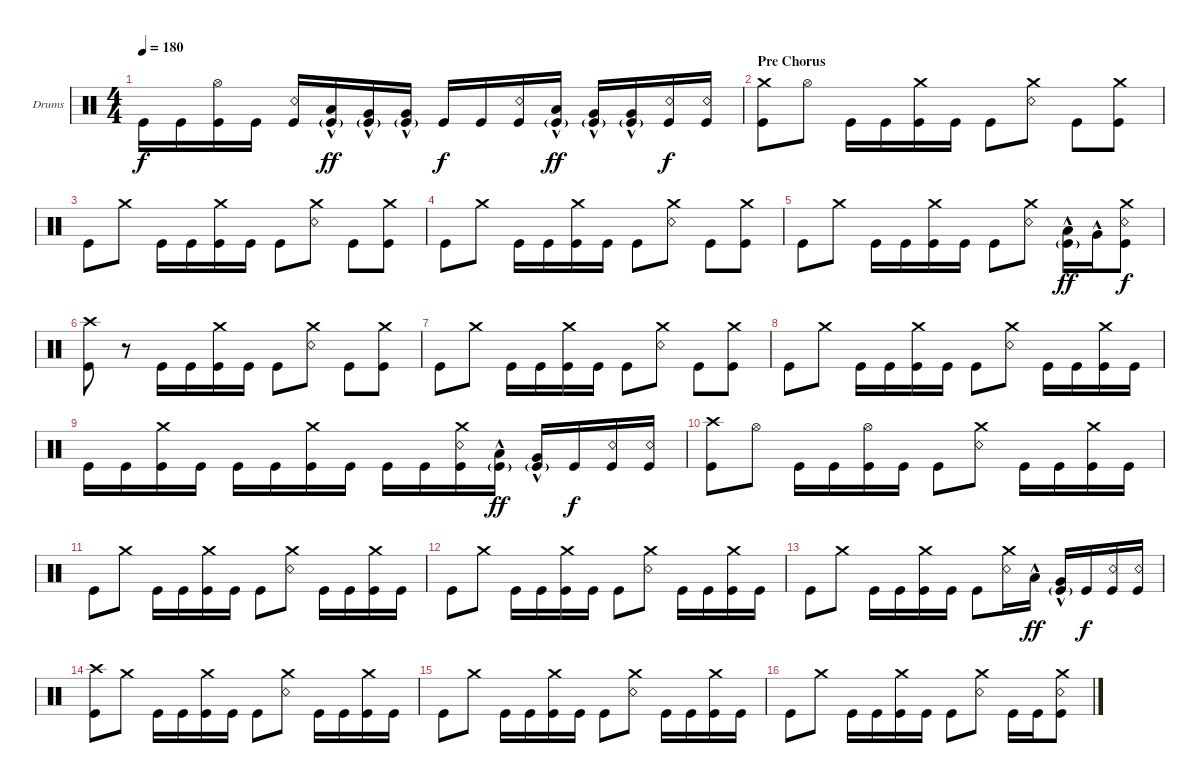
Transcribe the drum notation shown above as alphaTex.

\bracketExtendMode groupsimilarinstruments
\firstSystemTrackNameOrientation horizontal
\otherSystemsTrackNameOrientation horizontal
\track ("Drumkit" "Drums") {instrument percussion}
\staff {score}
\articulation defaults
\ts (4 4)
\tempo 180
\clef neutral
\ks c "Kick (hit)".16{dy f} "Kick (hit)".16
("Kick (hit)" "Hi-Hat (open)").16 "Kick (hit)".16 ("Kick (hit)" "Snare (rim shot)").16 ("Kick (hit)"{g} "Low Tom (hit)"{hac}).16{dy ff} ("Kick (hit)"{g} "Very Low Tom (hit)"{hac}).16 ("Kick (hit)"{g} "Very Low Tom (hit)"{hac}).16 "Kick (hit)".16{dy f} "Kick (hit)".16 ("Kick (hit)" "Snare (rim shot)").16 ("Kick (hit)"{g} "Low Tom (hit)"{hac}).16{dy ff} ("Kick (hit)"{g} "Very Low Tom (hit)"{hac}).16 ("Kick (hit)"{g} "Very Low Tom (hit)"{hac}).16 ("Kick (hit)" "Snare (rim shot)").16{dy f} ("Kick (hit)" "Snare (rim shot)").16 |
\section ("" "Pre Chorus")
("Kick (hit)" "Crash medium (hit)").8 "Hi-Hat (open)".8 "Kick (hit)".16 "Kick (hit)".16 ("Kick (hit)" "Crash medium (hit)").16 "Kick (hit)".16 "Kick (hit)".8 ("Snare (rim shot)" "Crash medium (hit)").8 "Kick (hit)".8 ("Kick (hit)" "Crash medium (hit)").8 |
"Kick (hit)".8 "Crash medium (hit)".8 "Kick (hit)".16 "Kick (hit)".16 ("Kick (hit)" "Crash medium (hit)").16 "Kick (hit)".16 "Kick (hit)".8 ("Snare (rim shot)" "Crash medium (hit)").8 "Kick (hit)".8 ("Kick (hit)" "Crash medium (hit)").8 |
"Kick (hit)".8 "Crash medium (hit)".8 "Kick (hit)".16 "Kick (hit)".16 ("Kick (hit)" "Crash medium (hit)").16 "Kick (hit)".16 "Kick (hit)".8 ("Snare (rim shot)" "Crash medium (hit)").8 "Kick (hit)".8 ("Kick (hit)" "Crash medium (hit)").8 |
"Kick (hit)".8 "Crash medium (hit)".8 "Kick (hit)".16 "Kick (hit)".16 ("Kick (hit)" "Crash medium (hit)").16 "Kick (hit)".16 "Kick (hit)".8 ("Snare (rim shot)" "Crash medium (hit)").8 ("Kick (hit)"{g} "Low Tom (hit)"{hac}).16{dy ff} "Very Low Tom (hit)"{hac}.16 ("Crash medium (hit)" "Kick (hit)" "Snare (rim shot)").8{dy f} |
("Kick (hit)" "Crash high (hit)").8 r.8 "Kick (hit)".16 "Kick (hit)".16 ("Kick (hit)" "Crash medium (hit)").16 "Kick (hit)".16 "Kick (hit)".8 ("Snare (rim shot)" "Crash medium (hit)").8 "Kick (hit)".8 ("Kick (hit)" "Crash medium (hit)").8 |
"Kick (hit)".8 "Crash medium (hit)".8 "Kick (hit)".16 "Kick (hit)".16 ("Kick (hit)" "Crash medium (hit)").16 "Kick (hit)".16 "Kick (hit)".8 ("Snare (rim shot)" "Crash medium (hit)").8 "Kick (hit)".8 ("Kick (hit)" "Crash medium (hit)").8 |
"Kick (hit)".8 "Crash medium (hit)".8 "Kick (hit)".16 "Kick (hit)".16 ("Kick (hit)" "Crash medium (hit)").16 "Kick (hit)".16 "Kick (hit)".8 ("Snare (rim shot)" "Crash medium (hit)").8 "Kick (hit)".16 "Kick (hit)".16 ("Kick (hit)" "Crash medium (hit)").16 "Kick (hit)".16 |
"Kick (hit)".16 "Kick (hit)".16 ("Kick (hit)" "Crash medium (hit)").16 "Kick (hit)".16 "Kick (hit)".16 "Kick (hit)".16 ("Kick (hit)" "Crash medium (hit)").16 "Kick (hit)".16 "Kick (hit)".16 "Kick (hit)".16 ("Kick (hit)" "Snare (rim shot)" "Crash medium (hit)").16 ("Kick (hit)"{g} "Low Tom (hit)"{hac}).16{dy ff} ("Kick (hit)"{g} "Very Low Tom (hit)"{hac}).16 "Kick (hit)".16{dy f} ("Kick (hit)" "Snare (rim shot)").16 ("Kick (hit)" "Snare (rim shot)").16 |
("Kick (hit)" "Crash high (hit)").8 "Hi-Hat (open)".8 "Kick (hit)".16 "Kick (hit)".16 ("Kick (hit)" "Hi-Hat (open)").16 "Kick (hit)".16 "Kick (hit)".8 ("Snare (rim shot)" "Crash medium (hit)").8 "Kick (hit)".16 "Kick (hit)".16 ("Kick (hit)" "Crash medium (hit)").16 "Kick (hit)".16 |
"Kick (hit)".8 "Crash medium (hit)".8 "Kick (hit)".16 "Kick (hit)".16 ("Kick (hit)" "Crash medium (hit)").16 "Kick (hit)".16 "Kick (hit)".8 ("Snare (rim shot)" "Crash medium (hit)").8 "Kick (hit)".16 "Kick (hit)".16 ("Kick (hit)" "Crash medium (hit)").16 "Kick (hit)".16 |
"Kick (hit)".8 "Crash medium (hit)".8 "Kick (hit)".16 "Kick (hit)".16 ("Kick (hit)" "Crash medium (hit)").16 "Kick (hit)".16 "Kick (hit)".8 ("Snare (rim shot)" "Crash medium (hit)").8 "Kick (hit)".16 "Kick (hit)".16 ("Kick (hit)" "Crash medium (hit)").16 "Kick (hit)".16 |
"Kick (hit)".8 "Crash medium (hit)".8 "Kick (hit)".16 "Kick (hit)".16 ("Kick (hit)" "Crash medium (hit)").16 "Kick (hit)".16 "Kick (hit)".8 ("Snare (rim shot)" "Crash medium (hit)").16 "Low Tom (hit)"{hac}.16{dy ff} ("Kick (hit)"{g} "Very Low Tom (hit)"{hac}).16 "Kick (hit)".16{dy f} ("Kick (hit)" "Snare (rim shot)").16 ("Kick (hit)" "Snare (rim shot)").16 |
("Kick (hit)" "Crash high (hit)").8 "Crash medium (hit)".8 "Kick (hit)".16 "Kick (hit)".16 ("Kick (hit)" "Crash medium (hit)").16 "Kick (hit)".16 "Kick (hit)".8 ("Snare (rim shot)" "Crash medium (hit)").8 "Kick (hit)".16 "Kick (hit)".16 ("Kick (hit)" "Crash medium (hit)").16 "Kick (hit)".16 |
"Kick (hit)".8 "Crash medium (hit)".8 "Kick (hit)".16 "Kick (hit)".16 ("Kick (hit)" "Crash medium (hit)").16 "Kick (hit)".16 "Kick (hit)".8 ("Snare (rim shot)" "Crash medium (hit)").8 "Kick (hit)".16 "Kick (hit)".16 ("Kick (hit)" "Crash medium (hit)").16 "Kick (hit)".16 |
"Kick (hit)".8 "Crash medium (hit)".8 "Kick (hit)".16 "Kick (hit)".16 ("Kick (hit)" "Crash medium (hit)").16 "Kick (hit)".16 "Kick (hit)".8 ("Snare (rim shot)" "Crash medium (hit)").8 "Kick (hit)".16 "Kick (hit)".16 ("Kick (hit)" "Crash medium (hit)" "Snare (rim shot)").8
